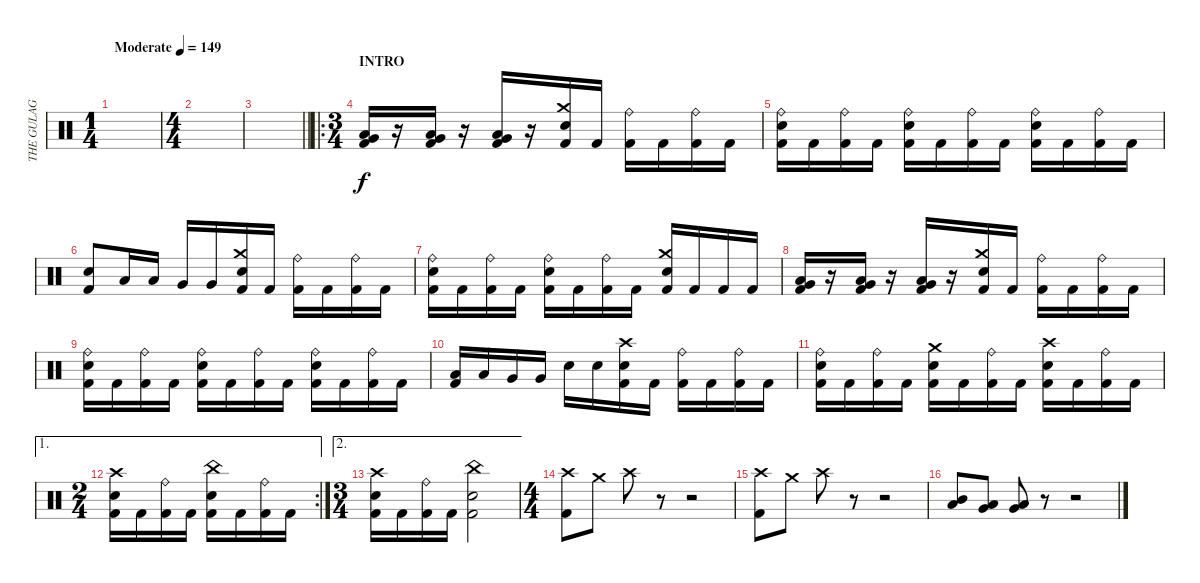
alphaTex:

\track ("THE GULAG" "THE GULAG") {instrument percussion}
\staff {score}
\articulation defaults
\ts (1 4)
\tempo (149 "Moderate")
\clef neutral
\ks c
|
\ts (4 4)
|
\barLineRight lightlight
|
\ro
\ts (3 4)
\section ("" "INTRO")
("Low Floor Tom (hit)" "Very Low Tom (hit)" "Kick (hit) 2").16 r.16 ("Low Floor Tom (hit)" "Very Low Tom (hit)" "Kick (hit) 2").16 r.16 ("Low Floor Tom (hit)" "Very Low Tom (hit)" "Kick (hit) 2").16 r.16 ("Crash medium (hit)" "Snare (hit) 2" "Kick (hit) 2").16 "Kick (hit) 2".16 ("Ride (bell)" "Kick (hit) 2").16 "Kick (hit) 2".16 ("Ride (bell)" "Kick (hit) 2").16 "Kick (hit) 2".16 |
("Ride (bell)" "Snare (hit) 2" "Kick (hit) 2").16 "Kick (hit) 2".16 ("Ride (bell)" "Kick (hit) 2").16 "Kick (hit) 2".16 ("Ride (bell)" "Snare (hit) 2" "Kick (hit) 2").16 "Kick (hit) 2".16 ("Ride (bell)" "Kick (hit) 2").16 "Kick (hit) 2".16 ("Ride (bell)" "Snare (hit) 2" "Kick (hit) 2").16 "Kick (hit) 2".16 ("Ride (bell)" "Kick (hit) 2").16 "Kick (hit) 2".16 |
("Snare (hit) 2" "Kick (hit) 2").8 "Low Tom (hit)".16 "Low Tom (hit)".16 "Very Low Tom (hit)".16 "Very Low Tom (hit)".16 ("Crash medium (hit)" "Snare (hit) 2" "Kick (hit) 2").16 "Kick (hit) 2".16 ("Ride (bell)" "Kick (hit) 2").16 "Kick (hit) 2".16 ("Ride (bell)" "Kick (hit) 2").16 "Kick (hit) 2".16 |
("Ride (bell)" "Snare (hit) 2" "Kick (hit) 2").16 "Kick (hit) 2".16 ("Ride (bell)" "Kick (hit) 2").16 "Kick (hit) 2".16 ("Ride (bell)" "Snare (hit) 2" "Kick (hit) 2").16 "Kick (hit) 2".16 ("Ride (bell)" "Kick (hit) 2").16 "Kick (hit) 2".16 ("Crash medium (hit)" "Snare (hit) 2" "Kick (hit) 2").16 "Kick (hit) 2".16 "Kick (hit) 2".16 "Kick (hit) 2".16 |
("Low Floor Tom (hit)" "Very Low Tom (hit)" "Kick (hit) 2").16 r.16 ("Low Floor Tom (hit)" "Very Low Tom (hit)" "Kick (hit) 2").16 r.16 ("Low Floor Tom (hit)" "Very Low Tom (hit)" "Kick (hit) 2").16 r.16 ("Crash medium (hit)" "Snare (hit) 2" "Kick (hit) 2").16 "Kick (hit) 2".16 ("Ride (bell)" "Kick (hit) 2").16 "Kick (hit) 2".16 ("Ride (bell)" "Kick (hit) 2").16 "Kick (hit) 2".16 |
("Ride (bell)" "Snare (hit) 2" "Kick (hit) 2").16 "Kick (hit) 2".16 ("Ride (bell)" "Kick (hit) 2").16 "Kick (hit) 2".16 ("Ride (bell)" "Snare (hit) 2" "Kick (hit) 2").16 "Kick (hit) 2".16 ("Ride (bell)" "Kick (hit) 2").16 "Kick (hit) 2".16 ("Ride (bell)" "Snare (hit) 2" "Kick (hit) 2").16 "Kick (hit) 2".16 ("Ride (bell)" "Kick (hit) 2").16 "Kick (hit) 2".16 |
("Low Tom (hit)" "Kick (hit) 2").16 "Low Tom (hit)".16 "Very Low Tom (hit)".16 "Very Low Tom (hit)".16 "Snare (hit) 2".16 "Snare (hit) 2".16 ("Crash high (hit)" "Snare (hit) 2" "Kick (hit) 2").16 "Kick (hit) 2".16 ("Ride (bell)" "Kick (hit) 2").16 "Kick (hit) 2".16 ("Ride (bell)" "Kick (hit) 2").16 "Kick (hit) 2".16 |
("Ride (bell)" "Snare (hit) 2" "Kick (hit) 2").16 "Kick (hit) 2".16 ("Ride (bell)" "Kick (hit) 2").16 "Kick (hit) 2".16 ("Crash medium (hit)" "Snare (hit) 2" "Kick (hit) 2").16 "Kick (hit) 2".16 ("Ride (bell)" "Kick (hit) 2").16 "Kick (hit) 2".16 ("Crash high (hit)" "Snare (hit) 2" "Kick (hit) 2").16 "Kick (hit) 2".16 ("Ride (bell)" "Kick (hit) 2").16 "Kick (hit) 2".16 |
\ae 1
\rc 2
\ts (2 4)
("Crash high (hit)" "Snare (hit) 2" "Kick (hit) 2").16 "Kick (hit) 2".16 ("Ride (bell)" "Kick (hit) 2").16 "Kick (hit) 2".16 ("China (hit)" "Snare (hit) 2" "Kick (hit) 2").16 "Kick (hit) 2".16 ("Ride (bell)" "Kick (hit) 2").16 "Kick (hit) 2".16 |
\ae 2
\ts (3 4)
("Crash high (hit)" "Snare (hit) 2" "Kick (hit) 2").16 "Kick (hit) 2".16 ("Ride (bell)" "Kick (hit) 2").16 "Kick (hit) 2".16 ("China (hit)" "Snare (hit) 2" "Kick (hit) 2").2 |
\ts (4 4)
("Crash high (hit)" "Kick (hit) 2").8 "Crash medium (hit)".8 "Crash high (hit)".8 r.8 r.2 |
("Crash high (hit)" "Kick (hit) 2").8 "Crash medium (hit)".8 "Crash high (hit)".8 r.8 r.2 |
("Mid Tom (hit)" "Low Tom (hit)").8 ("Low Tom (hit)" "Very Low Tom (hit)").8 ("Very Low Tom (hit)" "Low Floor Tom (hit)").8 r.8 r.2
